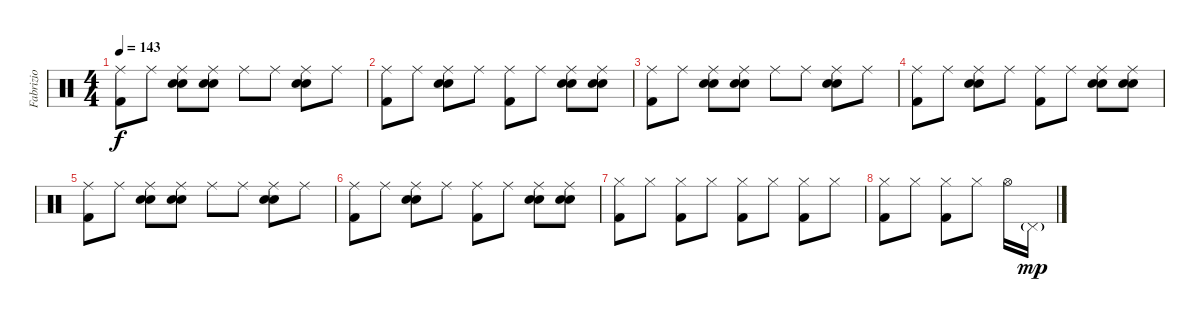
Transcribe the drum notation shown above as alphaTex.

\track ("Fabrizio" "Fabrizio") {instrument percussion}
\staff {score}
\articulation defaults
\ts (4 4)
\tempo 143
\clef neutral
\ks c
("Ride (middle)" "Kick (hit) 2").8{dy f} "Ride (middle)".8 ("Ride (middle)" "Electric Snare (hit)" "Hand Clap (hit)").8 ("Ride (middle)" "Electric Snare (hit)" "Hand Clap (hit)").8 "Ride (middle)".8 "Ride (middle)".8 ("Ride (middle)" "Electric Snare (hit)" "Hand Clap (hit)").8 "Ride (middle)".8 |
("Ride (middle)" "Kick (hit) 2").8 "Ride (middle)".8 ("Ride (middle)" "Electric Snare (hit)" "Hand Clap (hit)").8 "Ride (middle)".8 ("Ride (middle)" "Kick (hit) 2").8 "Ride (middle)".8 ("Ride (middle)" "Electric Snare (hit)" "Hand Clap (hit)").8 ("Ride (middle)" "Electric Snare (hit)" "Hand Clap (hit)").8 |
("Ride (middle)" "Kick (hit) 2").8 "Ride (middle)".8 ("Ride (middle)" "Electric Snare (hit)" "Hand Clap (hit)").8 ("Ride (middle)" "Electric Snare (hit)" "Hand Clap (hit)").8 "Ride (middle)".8 "Ride (middle)".8 ("Ride (middle)" "Electric Snare (hit)" "Hand Clap (hit)").8 "Ride (middle)".8 |
("Ride (middle)" "Kick (hit) 2").8 "Ride (middle)".8 ("Ride (middle)" "Electric Snare (hit)" "Hand Clap (hit)").8 "Ride (middle)".8 ("Ride (middle)" "Kick (hit) 2").8 "Ride (middle)".8 ("Ride (middle)" "Electric Snare (hit)" "Hand Clap (hit)").8 ("Ride (middle)" "Electric Snare (hit)" "Hand Clap (hit)").8 |
("Ride (middle)" "Kick (hit) 2").8 "Ride (middle)".8 ("Ride (middle)" "Electric Snare (hit)" "Hand Clap (hit)").8 ("Ride (middle)" "Electric Snare (hit)" "Hand Clap (hit)").8 "Ride (middle)".8 "Ride (middle)".8 ("Ride (middle)" "Electric Snare (hit)" "Hand Clap (hit)").8 "Ride (middle)".8 |
("Ride (middle)" "Kick (hit) 2").8 "Ride (middle)".8 ("Ride (middle)" "Electric Snare (hit)" "Hand Clap (hit)").8 "Ride (middle)".8 ("Ride (middle)" "Kick (hit) 2").8 "Ride (middle)".8 ("Ride (middle)" "Electric Snare (hit)" "Hand Clap (hit)").8 ("Ride (middle)" "Electric Snare (hit)" "Hand Clap (hit)").8 |
("Hi-Hat (closed)" "Kick (hit) 2").8 "Hi-Hat (closed)".8 ("Hi-Hat (closed)" "Kick (hit) 2").8 "Hi-Hat (closed)".8 ("Hi-Hat (closed)" "Kick (hit) 2").8 "Hi-Hat (closed)".8 ("Hi-Hat (closed)" "Kick (hit) 2").8 "Hi-Hat (closed)".8 |
("Hi-Hat (closed)" "Kick (hit) 2").8 "Hi-Hat (closed)".8 ("Hi-Hat (closed)" "Kick (hit) 2").8 "Hi-Hat (closed)".8 "Hi-Hat (open)".16 "Pedal Hi-Hat (hit)"{g}.16{dy mp}
